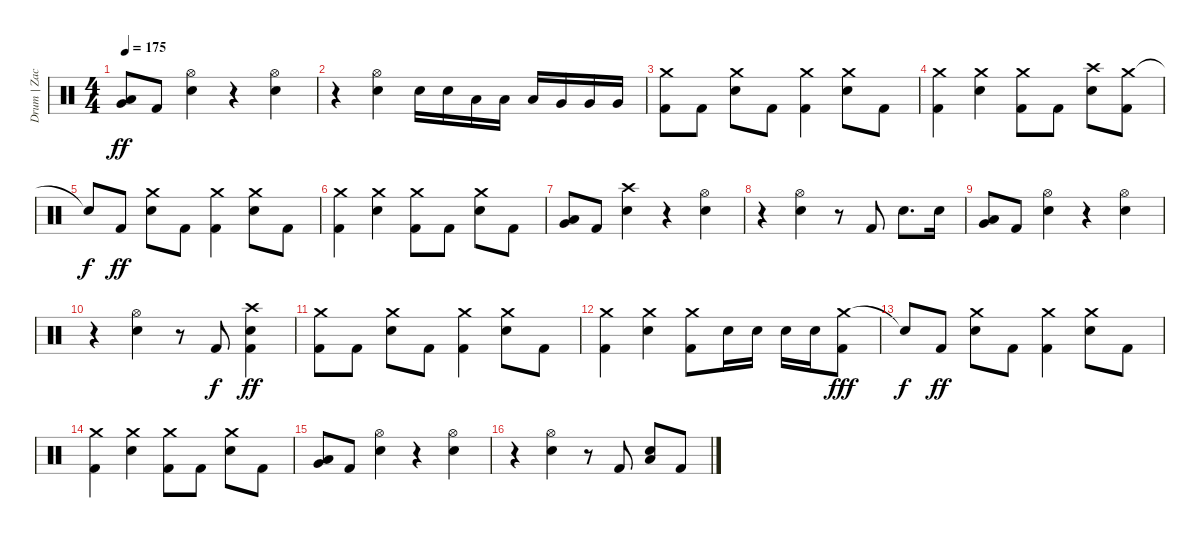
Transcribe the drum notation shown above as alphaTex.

\track ("Drum | Zac" "Drum | Zac") {instrument percussion}
\staff {score}
\articulation defaults
\ts (4 4)
\tempo 175
\clef neutral
\ks c
("Low Tom (hit)" "Very Low Tom (hit)").8{dy ff} "Kick (hit) 2".8 ("Hi-Hat (open)" "Electric Snare (hit)").4 r.4 ("Hi-Hat (open)" "Electric Snare (hit)").4 |
r.4 ("Hi-Hat (open)" "Electric Snare (hit)").4 "Electric Snare (hit)".16 "Electric Snare (hit)".16 "Low Tom (hit)".16 "Low Tom (hit)".16 "Low Tom (hit)".16 "Very Low Tom (hit)".16 "Very Low Tom (hit)".16 "Very Low Tom (hit)".16 |
("Crash medium (hit)" "Kick (hit) 2").8 "Kick (hit) 2".8 ("Crash medium (hit)" "Electric Snare (hit)").8 "Kick (hit) 2".8 ("Crash medium (hit)" "Kick (hit) 2").4 ("Crash medium (hit)" "Electric Snare (hit)").8 "Kick (hit) 2".8 |
("Crash medium (hit)" "Kick (hit) 2").4 ("Crash medium (hit)" "Electric Snare (hit)").4 ("Crash medium (hit)" "Kick (hit) 2").8 "Kick (hit) 2".8 ("Crash high (hit)" "Electric Snare (hit)").8 ("Crash medium (hit)" "Kick (hit) 2").8 |
"Snare (hit)"{t}.8{dy f} "Kick (hit) 2".8{dy ff} ("Crash medium (hit)" "Electric Snare (hit)").8 "Kick (hit) 2".8 ("Crash medium (hit)" "Kick (hit) 2").4 ("Crash medium (hit)" "Electric Snare (hit)").8 "Kick (hit) 2".8 |
("Crash medium (hit)" "Kick (hit) 2").4 ("Crash medium (hit)" "Electric Snare (hit)").4 ("Crash medium (hit)" "Kick (hit) 2").8 "Kick (hit) 2".8 ("Crash medium (hit)" "Electric Snare (hit)").8 "Kick (hit) 2".8 |
("Low Tom (hit)" "Very Low Tom (hit)").8 "Kick (hit) 2".8 ("Crash high (hit)" "Electric Snare (hit)").4 r.4 ("Hi-Hat (open)" "Electric Snare (hit)").4 |
r.4 ("Hi-Hat (open)" "Electric Snare (hit)").4 r.8 "Kick (hit) 2".8 "Electric Snare (hit)".8{d} "Electric Snare (hit)".16 |
("Low Tom (hit)" "Very Low Tom (hit)").8 "Kick (hit) 2".8 ("Hi-Hat (open)" "Electric Snare (hit)").4 r.4 ("Hi-Hat (open)" "Electric Snare (hit)").4 |
r.4 ("Hi-Hat (open)" "Electric Snare (hit)").4 r.8 "Kick (hit) 2".8{dy f} ("Crash high (hit)" "Electric Snare (hit)" "Kick (hit) 2").4{dy ff} |
("Crash medium (hit)" "Kick (hit) 2").8 "Kick (hit) 2".8 ("Crash medium (hit)" "Electric Snare (hit)").8 "Kick (hit) 2".8 ("Crash medium (hit)" "Kick (hit) 2").4 ("Crash medium (hit)" "Electric Snare (hit)").8 "Kick (hit) 2".8 |
("Crash medium (hit)" "Kick (hit) 2").4 ("Crash medium (hit)" "Electric Snare (hit)").4 ("Crash medium (hit)" "Kick (hit) 2").8 "Electric Snare (hit)".16 "Electric Snare (hit)".16 "Electric Snare (hit)".16 "Electric Snare (hit)".16 ("Crash medium (hit)" "Kick (hit) 2").8{dy fff} |
"Snare (hit)"{t}.8{dy f} "Kick (hit) 2".8{dy ff} ("Crash medium (hit)" "Electric Snare (hit)").8 "Kick (hit) 2".8 ("Crash medium (hit)" "Kick (hit) 2").4 ("Crash medium (hit)" "Electric Snare (hit)").8 "Kick (hit) 2".8 |
("Crash medium (hit)" "Kick (hit) 2").4 ("Crash medium (hit)" "Electric Snare (hit)").4 ("Crash medium (hit)" "Kick (hit) 2").8 "Kick (hit) 2".8 ("Crash medium (hit)" "Electric Snare (hit)").8 "Kick (hit) 2".8 |
("Low Tom (hit)" "Very Low Tom (hit)").8 "Kick (hit) 2".8 ("Hi-Hat (open)" "Electric Snare (hit)").4 r.4 ("Hi-Hat (open)" "Electric Snare (hit)").4 |
r.4 ("Hi-Hat (open)" "Electric Snare (hit)").4 r.8 "Kick (hit) 2".8 ("Low Tom (hit)" "Electric Snare (hit)").8 "Kick (hit) 2".8
